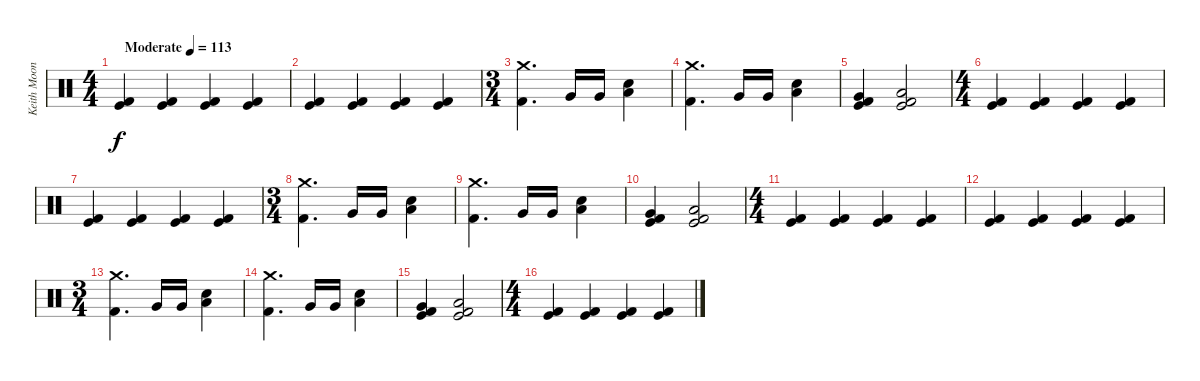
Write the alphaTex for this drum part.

\track ("Keith Moon" "Keith Moon") {instrument percussion}
\staff {score}
\articulation defaults
\ts (4 4)
\tempo (113 "Moderate")
\clef neutral
\ks c
("Kick (hit) 2" "Kick (hit)").4{dy f} ("Kick (hit) 2" "Kick (hit)").4 ("Kick (hit) 2" "Kick (hit)").4 ("Kick (hit) 2" "Kick (hit)").4 |
("Kick (hit) 2" "Kick (hit)").4 ("Kick (hit) 2" "Kick (hit)").4 ("Kick (hit) 2" "Kick (hit)").4 ("Kick (hit) 2" "Kick (hit)").4 |
\ts (3 4)
("Kick (hit) 2" "Crash medium (hit)").4{d} "Very Low Tom (hit)".16 "Very Low Tom (hit)".16 ("Low Tom (hit)" "Snare (hit) 2").4 |
("Kick (hit) 2" "Crash medium (hit)").4{d} "Very Low Tom (hit)".16 "Very Low Tom (hit)".16 ("Low Tom (hit)" "Snare (hit) 2").4 |
("Kick (hit) 2" "Kick (hit)" "Very Low Tom (hit)").4 ("Kick (hit) 2" "Kick (hit)" "Low Tom (hit)").2 |
\ts (4 4)
("Kick (hit) 2" "Kick (hit)").4 ("Kick (hit) 2" "Kick (hit)").4 ("Kick (hit) 2" "Kick (hit)").4 ("Kick (hit) 2" "Kick (hit)").4 |
("Kick (hit) 2" "Kick (hit)").4 ("Kick (hit) 2" "Kick (hit)").4 ("Kick (hit) 2" "Kick (hit)").4 ("Kick (hit) 2" "Kick (hit)").4 |
\ts (3 4)
("Kick (hit) 2" "Crash medium (hit)").4{d} "Very Low Tom (hit)".16 "Very Low Tom (hit)".16 ("Low Tom (hit)" "Snare (hit) 2").4 |
("Kick (hit) 2" "Crash medium (hit)").4{d} "Very Low Tom (hit)".16 "Very Low Tom (hit)".16 ("Low Tom (hit)" "Snare (hit) 2").4 |
("Kick (hit) 2" "Kick (hit)" "Very Low Tom (hit)").4 ("Kick (hit) 2" "Kick (hit)" "Low Tom (hit)").2 |
\ts (4 4)
("Kick (hit) 2" "Kick (hit)").4 ("Kick (hit) 2" "Kick (hit)").4 ("Kick (hit) 2" "Kick (hit)").4 ("Kick (hit) 2" "Kick (hit)").4 |
("Kick (hit) 2" "Kick (hit)").4 ("Kick (hit) 2" "Kick (hit)").4 ("Kick (hit) 2" "Kick (hit)").4 ("Kick (hit) 2" "Kick (hit)").4 |
\ts (3 4)
("Kick (hit) 2" "Crash medium (hit)").4{d} "Very Low Tom (hit)".16 "Very Low Tom (hit)".16 ("Low Tom (hit)" "Snare (hit) 2").4 |
("Kick (hit) 2" "Crash medium (hit)").4{d} "Very Low Tom (hit)".16 "Very Low Tom (hit)".16 ("Low Tom (hit)" "Snare (hit) 2").4 |
("Kick (hit) 2" "Kick (hit)" "Very Low Tom (hit)").4 ("Kick (hit) 2" "Kick (hit)" "Low Tom (hit)").2 |
\ts (4 4)
("Kick (hit) 2" "Kick (hit)").4 ("Kick (hit) 2" "Kick (hit)").4 ("Kick (hit) 2" "Kick (hit)").4 ("Kick (hit) 2" "Kick (hit)").4
